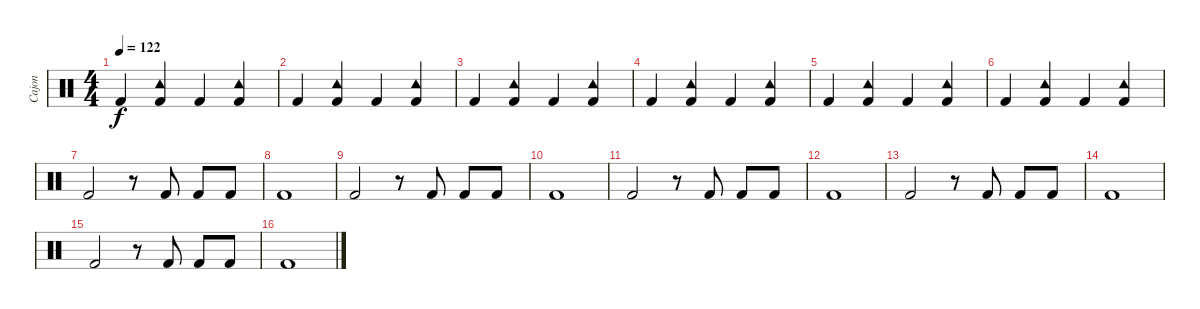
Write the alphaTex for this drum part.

\track ("Cajon" "Cajon") {instrument percussion}
\staff {score}
\articulation defaults
\ts (4 4)
\tempo 122
\clef neutral
\ks c "Kick (hit) 2".4{dy f}
("Tambourine (hit)" "Kick (hit) 2").4 "Kick (hit) 2".4 ("Tambourine (hit)" "Kick (hit) 2").4 |
"Kick (hit) 2".4 ("Tambourine (hit)" "Kick (hit) 2").4 "Kick (hit) 2".4 ("Tambourine (hit)" "Kick (hit) 2").4 |
"Kick (hit) 2".4 ("Tambourine (hit)" "Kick (hit) 2").4 "Kick (hit) 2".4 ("Tambourine (hit)" "Kick (hit) 2").4 |
"Kick (hit) 2".4 ("Tambourine (hit)" "Kick (hit) 2").4 "Kick (hit) 2".4 ("Tambourine (hit)" "Kick (hit) 2").4 |
"Kick (hit) 2".4 ("Tambourine (hit)" "Kick (hit) 2").4 "Kick (hit) 2".4 ("Tambourine (hit)" "Kick (hit) 2").4 |
"Kick (hit) 2".4 ("Tambourine (hit)" "Kick (hit) 2").4 "Kick (hit) 2".4 ("Tambourine (hit)" "Kick (hit) 2").4 |
"Kick (hit) 2".2 r.8 "Kick (hit) 2".8 "Kick (hit) 2".8 "Kick (hit) 2".8 |
"Kick (hit) 2".1 |
"Kick (hit) 2".2 r.8 "Kick (hit) 2".8 "Kick (hit) 2".8 "Kick (hit) 2".8 |
"Kick (hit) 2".1 |
"Kick (hit) 2".2 r.8 "Kick (hit) 2".8 "Kick (hit) 2".8 "Kick (hit) 2".8 |
"Kick (hit) 2".1 |
"Kick (hit) 2".2 r.8 "Kick (hit) 2".8 "Kick (hit) 2".8 "Kick (hit) 2".8 |
"Kick (hit) 2".1 |
"Kick (hit) 2".2 r.8 "Kick (hit) 2".8 "Kick (hit) 2".8 "Kick (hit) 2".8 |
"Kick (hit) 2".1
